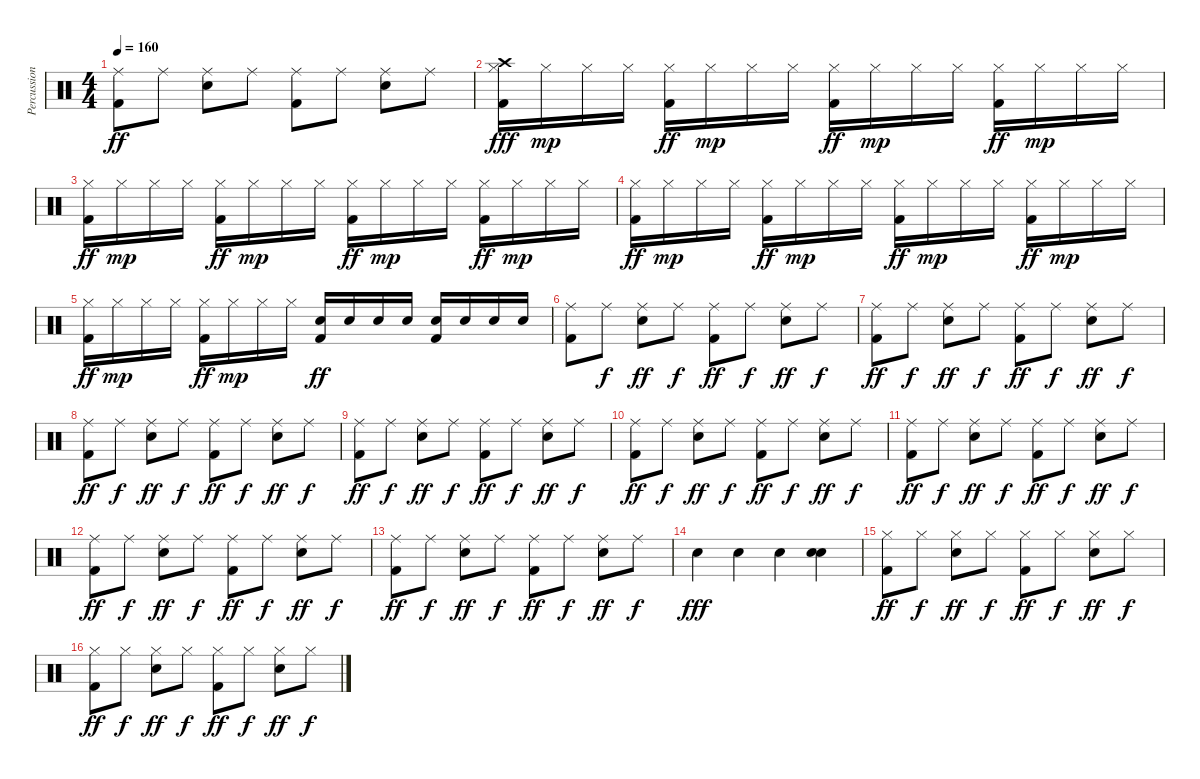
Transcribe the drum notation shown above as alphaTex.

\track ("Percussion" "Percussion") {instrument percussion}
\staff {score}
\articulation defaults
\ts (4 4)
\tempo 160
\clef neutral
\ks c
("Ride (middle)" "Kick (hit) 2").8{dy ff} "Ride (middle)".8 ("Ride (middle)" "Snare (hit) 2").8 "Ride (middle)".8 ("Ride (middle)" "Kick (hit) 2").8 "Ride (middle)".8 ("Ride (middle)" "Snare (hit) 2").8 "Ride (middle)".8 |
("Hi-Hat (closed)" "Kick (hit) 2" "Crash high (hit)").16{dy fff} "Hi-Hat (closed)".16{dy mp} "Hi-Hat (closed)".16 "Hi-Hat (closed)".16 ("Hi-Hat (closed)" "Kick (hit) 2").16{dy ff} "Hi-Hat (closed)".16{dy mp} "Hi-Hat (closed)".16 "Hi-Hat (closed)".16 ("Hi-Hat (closed)" "Kick (hit) 2").16{dy ff} "Hi-Hat (closed)".16{dy mp} "Hi-Hat (closed)".16 "Hi-Hat (closed)".16 ("Hi-Hat (closed)" "Kick (hit) 2").16{dy ff} "Hi-Hat (closed)".16{dy mp} "Hi-Hat (closed)".16 "Hi-Hat (closed)".16 |
("Hi-Hat (closed)" "Kick (hit) 2").16{dy ff} "Hi-Hat (closed)".16{dy mp} "Hi-Hat (closed)".16 "Hi-Hat (closed)".16 ("Hi-Hat (closed)" "Kick (hit) 2").16{dy ff} "Hi-Hat (closed)".16{dy mp} "Hi-Hat (closed)".16 "Hi-Hat (closed)".16 ("Hi-Hat (closed)" "Kick (hit) 2").16{dy ff} "Hi-Hat (closed)".16{dy mp} "Hi-Hat (closed)".16 "Hi-Hat (closed)".16 ("Hi-Hat (closed)" "Kick (hit) 2").16{dy ff} "Hi-Hat (closed)".16{dy mp} "Hi-Hat (closed)".16 "Hi-Hat (closed)".16 |
("Hi-Hat (closed)" "Kick (hit) 2").16{dy ff} "Hi-Hat (closed)".16{dy mp} "Hi-Hat (closed)".16 "Hi-Hat (closed)".16 ("Hi-Hat (closed)" "Kick (hit) 2").16{dy ff} "Hi-Hat (closed)".16{dy mp} "Hi-Hat (closed)".16 "Hi-Hat (closed)".16 ("Hi-Hat (closed)" "Kick (hit) 2").16{dy ff} "Hi-Hat (closed)".16{dy mp} "Hi-Hat (closed)".16 "Hi-Hat (closed)".16 ("Hi-Hat (closed)" "Kick (hit) 2").16{dy ff} "Hi-Hat (closed)".16{dy mp} "Hi-Hat (closed)".16 "Hi-Hat (closed)".16 |
("Hi-Hat (closed)" "Kick (hit) 2").16{dy ff} "Hi-Hat (closed)".16{dy mp} "Hi-Hat (closed)".16 "Hi-Hat (closed)".16 ("Hi-Hat (closed)" "Kick (hit) 2").16{dy ff} "Hi-Hat (closed)".16{dy mp} "Hi-Hat (closed)".16 "Hi-Hat (closed)".16 ("Snare (hit) 2" "Kick (hit) 2").16{dy ff} "Snare (hit) 2".16 "Snare (hit) 2".16 "Snare (hit) 2".16 ("Snare (hit) 2" "Kick (hit) 2").16 "Snare (hit) 2".16 "Snare (hit) 2".16 "Snare (hit) 2".16 |
("Ride (middle)" "Kick (hit) 2").8 "Ride (middle)".8{dy f} ("Ride (middle)" "Snare (hit) 2").8{dy ff} "Ride (middle)".8{dy f} ("Ride (middle)" "Kick (hit) 2").8{dy ff} "Ride (middle)".8{dy f} ("Ride (middle)" "Snare (hit) 2").8{dy ff} "Ride (middle)".8{dy f} |
("Ride (middle)" "Kick (hit) 2").8{dy ff} "Ride (middle)".8{dy f} ("Ride (middle)" "Snare (hit) 2").8{dy ff} "Ride (middle)".8{dy f} ("Ride (middle)" "Kick (hit) 2").8{dy ff} "Ride (middle)".8{dy f} ("Ride (middle)" "Snare (hit) 2").8{dy ff} "Ride (middle)".8{dy f} |
("Ride (middle)" "Kick (hit) 2").8{dy ff} "Ride (middle)".8{dy f} ("Ride (middle)" "Snare (hit) 2").8{dy ff} "Ride (middle)".8{dy f} ("Ride (middle)" "Kick (hit) 2").8{dy ff} "Ride (middle)".8{dy f} ("Ride (middle)" "Snare (hit) 2").8{dy ff} "Ride (middle)".8{dy f} |
("Ride (middle)" "Kick (hit) 2").8{dy ff} "Ride (middle)".8{dy f} ("Ride (middle)" "Snare (hit) 2").8{dy ff} "Ride (middle)".8{dy f} ("Ride (middle)" "Kick (hit) 2").8{dy ff} "Ride (middle)".8{dy f} ("Ride (middle)" "Snare (hit) 2").8{dy ff} "Ride (middle)".8{dy f} |
("Ride (middle)" "Kick (hit) 2").8{dy ff} "Ride (middle)".8{dy f} ("Ride (middle)" "Snare (hit) 2").8{dy ff} "Ride (middle)".8{dy f} ("Ride (middle)" "Kick (hit) 2").8{dy ff} "Ride (middle)".8{dy f} ("Ride (middle)" "Snare (hit) 2").8{dy ff} "Ride (middle)".8{dy f} |
("Ride (middle)" "Kick (hit) 2").8{dy ff} "Ride (middle)".8{dy f} ("Ride (middle)" "Snare (hit) 2").8{dy ff} "Ride (middle)".8{dy f} ("Ride (middle)" "Kick (hit) 2").8{dy ff} "Ride (middle)".8{dy f} ("Ride (middle)" "Snare (hit) 2").8{dy ff} "Ride (middle)".8{dy f} |
("Ride (middle)" "Kick (hit) 2").8{dy ff} "Ride (middle)".8{dy f} ("Ride (middle)" "Snare (hit) 2").8{dy ff} "Ride (middle)".8{dy f} ("Ride (middle)" "Kick (hit) 2").8{dy ff} "Ride (middle)".8{dy f} ("Ride (middle)" "Snare (hit) 2").8{dy ff} "Ride (middle)".8{dy f} |
("Ride (middle)" "Kick (hit) 2").8{dy ff} "Ride (middle)".8{dy f} ("Ride (middle)" "Snare (hit) 2").8{dy ff} "Ride (middle)".8{dy f} ("Ride (middle)" "Kick (hit) 2").8{dy ff} "Ride (middle)".8{dy f} ("Ride (middle)" "Snare (hit) 2").8{dy ff} "Ride (middle)".8{dy f} |
"Snare (hit) 2".4{dy fff} "Snare (hit) 2".4 "Snare (hit) 2".4 ("Snare (hit) 2" "Electric Snare (hit)").4 |
("Hi-Hat (closed)" "Kick (hit) 2").8{dy ff} "Hi-Hat (closed)".8{dy f} ("Hi-Hat (closed)" "Snare (hit) 2").8{dy ff} "Hi-Hat (closed)".8{dy f} ("Hi-Hat (closed)" "Kick (hit) 2").8{dy ff} "Hi-Hat (closed)".8{dy f} ("Hi-Hat (closed)" "Snare (hit) 2").8{dy ff} "Hi-Hat (closed)".8{dy f} |
("Hi-Hat (closed)" "Kick (hit) 2").8{dy ff} "Hi-Hat (closed)".8{dy f} ("Hi-Hat (closed)" "Snare (hit) 2").8{dy ff} "Hi-Hat (closed)".8{dy f} ("Hi-Hat (closed)" "Kick (hit) 2").8{dy ff} "Hi-Hat (closed)".8{dy f} ("Hi-Hat (closed)" "Snare (hit) 2").8{dy ff} "Hi-Hat (closed)".8{dy f}
